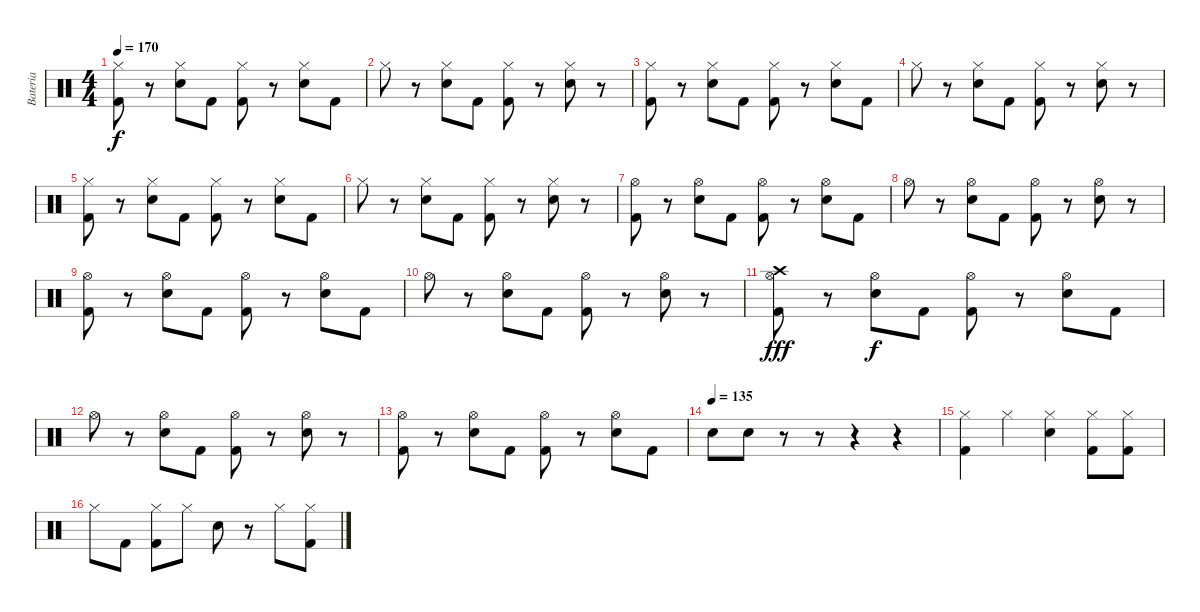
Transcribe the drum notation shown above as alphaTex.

\track ("Bateria" "Bateria") {instrument percussion}
\staff {score}
\articulation defaults
\ts (4 4)
\tempo 170
\clef neutral
\ks c
("Kick (hit) 2" "Hi-Hat (closed)").8{dy f} r.8 ("Snare (hit) 2" "Hi-Hat (closed)").8 "Kick (hit) 2".8 ("Kick (hit) 2" "Hi-Hat (closed)").8 r.8 ("Snare (hit) 2" "Hi-Hat (closed)").8 "Kick (hit) 2".8 |
"Hi-Hat (closed)".8 r.8 ("Snare (hit) 2" "Hi-Hat (closed)").8 "Kick (hit) 2".8 ("Kick (hit) 2" "Hi-Hat (closed)").8 r.8 ("Snare (hit) 2" "Hi-Hat (closed)").8 r.8 |
("Kick (hit) 2" "Hi-Hat (closed)").8 r.8 ("Snare (hit) 2" "Hi-Hat (closed)").8 "Kick (hit) 2".8 ("Kick (hit) 2" "Hi-Hat (closed)").8 r.8 ("Snare (hit) 2" "Hi-Hat (closed)").8 "Kick (hit) 2".8 |
"Hi-Hat (closed)".8 r.8 ("Snare (hit) 2" "Hi-Hat (closed)").8 "Kick (hit) 2".8 ("Kick (hit) 2" "Hi-Hat (closed)").8 r.8 ("Snare (hit) 2" "Hi-Hat (closed)").8 r.8 |
("Kick (hit) 2" "Hi-Hat (closed)").8 r.8 ("Snare (hit) 2" "Hi-Hat (closed)").8 "Kick (hit) 2".8 ("Kick (hit) 2" "Hi-Hat (closed)").8 r.8 ("Snare (hit) 2" "Hi-Hat (closed)").8 "Kick (hit) 2".8 |
"Hi-Hat (closed)".8 r.8 ("Snare (hit) 2" "Hi-Hat (closed)").8 "Kick (hit) 2".8 ("Kick (hit) 2" "Hi-Hat (closed)").8 r.8 ("Snare (hit) 2" "Hi-Hat (closed)").8 r.8 |
("Kick (hit) 2" "Hi-Hat (open)").8 r.8 ("Snare (hit) 2" "Hi-Hat (open)").8 "Kick (hit) 2".8 ("Kick (hit) 2" "Hi-Hat (open)").8 r.8 ("Snare (hit) 2" "Hi-Hat (open)").8 "Kick (hit) 2".8 |
"Hi-Hat (open)".8 r.8 ("Snare (hit) 2" "Hi-Hat (open)").8 "Kick (hit) 2".8 ("Kick (hit) 2" "Hi-Hat (open)").8 r.8 ("Snare (hit) 2" "Hi-Hat (open)").8 r.8 |
("Kick (hit) 2" "Hi-Hat (open)").8 r.8 ("Snare (hit) 2" "Hi-Hat (open)").8 "Kick (hit) 2".8 ("Kick (hit) 2" "Hi-Hat (open)").8 r.8 ("Snare (hit) 2" "Hi-Hat (open)").8 "Kick (hit) 2".8 |
"Hi-Hat (open)".8 r.8 ("Snare (hit) 2" "Hi-Hat (open)").8 "Kick (hit) 2".8 ("Kick (hit) 2" "Hi-Hat (open)").8 r.8 ("Snare (hit) 2" "Hi-Hat (open)").8 r.8 |
("Kick (hit) 2" "Hi-Hat (open)" "Crash high (hit)").8{dy fff} r.8 ("Snare (hit) 2" "Hi-Hat (open)").8{dy f} "Kick (hit) 2".8 ("Kick (hit) 2" "Hi-Hat (open)").8 r.8 ("Snare (hit) 2" "Hi-Hat (open)").8 "Kick (hit) 2".8 |
"Hi-Hat (open)".8 r.8 ("Snare (hit) 2" "Hi-Hat (open)").8 "Kick (hit) 2".8 ("Kick (hit) 2" "Hi-Hat (open)").8 r.8 ("Snare (hit) 2" "Hi-Hat (open)").8 r.8 |
("Kick (hit) 2" "Hi-Hat (open)").8 r.8 ("Snare (hit) 2" "Hi-Hat (open)").8 "Kick (hit) 2".8 ("Kick (hit) 2" "Hi-Hat (open)").8 r.8 ("Snare (hit) 2" "Hi-Hat (open)").8 "Kick (hit) 2".8 |
\tempo (135)
"Snare (hit) 2".8 "Snare (hit) 2".8 r.8 r.8 r.4 r.4 |
("Kick (hit) 2" "Hi-Hat (closed)").4 "Hi-Hat (closed)".4 ("Snare (hit) 2" "Hi-Hat (closed)").4 ("Kick (hit) 2" "Hi-Hat (closed)").8 ("Kick (hit) 2" "Hi-Hat (closed)").8 |
"Hi-Hat (closed)".8 "Kick (hit) 2".8 ("Kick (hit) 2" "Hi-Hat (closed)").8 "Hi-Hat (closed)".8 "Snare (hit) 2".8 r.8 "Hi-Hat (closed)".8 ("Kick (hit) 2" "Hi-Hat (closed)").8
